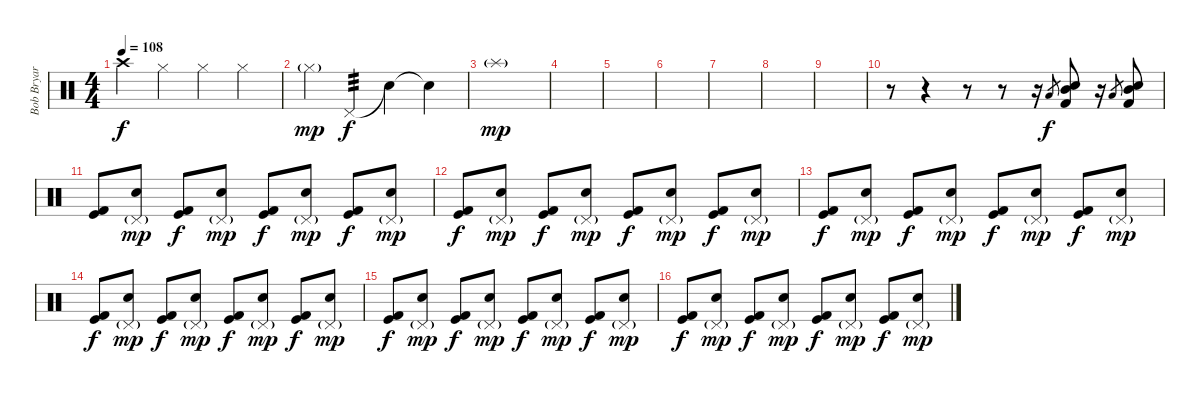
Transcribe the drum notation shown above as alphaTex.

\track ("Bob Bryar (Drums)" "Bob Bryar ") {instrument percussion}
\staff {score}
\articulation defaults
\ts (4 4)
\tempo 108
\clef neutral
\ks c "Crash high (hit)".4{dy f} "Hi-Hat (closed)".4 "Hi-Hat (closed)".4 "Hi-Hat (closed)".4
|
"Hi-Hat (closed)"{g}.4{dy mp volume 0} "Pedal Hi-Hat (hit)".4{tp 3 dy f volume 16} "Snare (hit)"{t}.4 "Snare (hit)"{t}.4 |
"Splash (hit)"{g}.1{dy mp} |
|
|
|
|
|
|
r.8 r.4 r.8 r.8 r.16 "Low Tom (hit)".8{gr dy f} ("Mid Tom (hit)" "Electric Snare (hit)" "Kick (hit) 2").8{balance 4} r.16 "Low Tom (hit)".8{gr} ("Mid Tom (hit)" "Electric Snare (hit)" "Kick (hit) 2").8{balance 13} |
("Kick (hit)" "Kick (hit) 2").8{volume 16 balance 8} ("Pedal Hi-Hat (hit)"{g} "Electric Snare (hit)").8{dy mp} ("Kick (hit)" "Kick (hit) 2").8{dy f} ("Pedal Hi-Hat (hit)"{g} "Electric Snare (hit)").8{dy mp} ("Kick (hit)" "Kick (hit) 2").8{dy f} ("Pedal Hi-Hat (hit)"{g} "Electric Snare (hit)").8{dy mp} ("Kick (hit)" "Kick (hit) 2").8{dy f} ("Pedal Hi-Hat (hit)"{g} "Electric Snare (hit)").8{dy mp} |
("Kick (hit)" "Kick (hit) 2").8{dy f volume 16 balance 8} ("Pedal Hi-Hat (hit)"{g} "Electric Snare (hit)").8{dy mp} ("Kick (hit)" "Kick (hit) 2").8{dy f} ("Pedal Hi-Hat (hit)"{g} "Electric Snare (hit)").8{dy mp} ("Kick (hit)" "Kick (hit) 2").8{dy f} ("Pedal Hi-Hat (hit)"{g} "Electric Snare (hit)").8{dy mp} ("Kick (hit)" "Kick (hit) 2").8{dy f} ("Pedal Hi-Hat (hit)"{g} "Electric Snare (hit)").8{dy mp} |
("Kick (hit)" "Kick (hit) 2").8{dy f volume 16 balance 8} ("Pedal Hi-Hat (hit)"{g} "Electric Snare (hit)").8{dy mp} ("Kick (hit)" "Kick (hit) 2").8{dy f} ("Pedal Hi-Hat (hit)"{g} "Electric Snare (hit)").8{dy mp} ("Kick (hit)" "Kick (hit) 2").8{dy f} ("Pedal Hi-Hat (hit)"{g} "Electric Snare (hit)").8{dy mp} ("Kick (hit)" "Kick (hit) 2").8{dy f} ("Pedal Hi-Hat (hit)"{g} "Electric Snare (hit)").8{dy mp} |
("Kick (hit)" "Kick (hit) 2").8{dy f volume 16 balance 8} ("Pedal Hi-Hat (hit)"{g} "Electric Snare (hit)").8{dy mp} ("Kick (hit)" "Kick (hit) 2").8{dy f} ("Pedal Hi-Hat (hit)"{g} "Electric Snare (hit)").8{dy mp} ("Kick (hit)" "Kick (hit) 2").8{dy f} ("Pedal Hi-Hat (hit)"{g} "Electric Snare (hit)").8{dy mp} ("Kick (hit)" "Kick (hit) 2").8{dy f} ("Pedal Hi-Hat (hit)"{g} "Electric Snare (hit)").8{dy mp} |
("Kick (hit)" "Kick (hit) 2").8{dy f volume 16 balance 8} ("Pedal Hi-Hat (hit)"{g} "Electric Snare (hit)").8{dy mp} ("Kick (hit)" "Kick (hit) 2").8{dy f} ("Pedal Hi-Hat (hit)"{g} "Electric Snare (hit)").8{dy mp} ("Kick (hit)" "Kick (hit) 2").8{dy f} ("Pedal Hi-Hat (hit)"{g} "Electric Snare (hit)").8{dy mp} ("Kick (hit)" "Kick (hit) 2").8{dy f} ("Pedal Hi-Hat (hit)"{g} "Electric Snare (hit)").8{dy mp} |
("Kick (hit)" "Kick (hit) 2").8{dy f volume 16 balance 8} ("Pedal Hi-Hat (hit)"{g} "Electric Snare (hit)").8{dy mp} ("Kick (hit)" "Kick (hit) 2").8{dy f} ("Pedal Hi-Hat (hit)"{g} "Electric Snare (hit)").8{dy mp} ("Kick (hit)" "Kick (hit) 2").8{dy f} ("Pedal Hi-Hat (hit)"{g} "Electric Snare (hit)").8{dy mp} ("Kick (hit)" "Kick (hit) 2").8{dy f} ("Pedal Hi-Hat (hit)"{g} "Electric Snare (hit)").8{dy mp}
